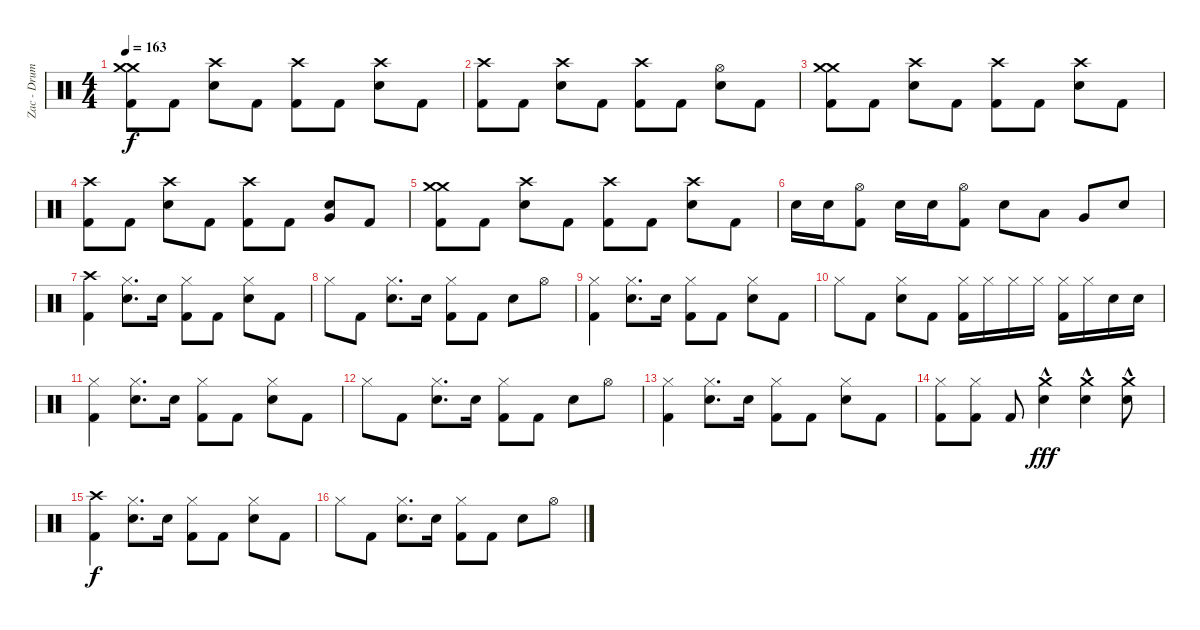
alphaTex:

\track ("Zac - Drums" "Zac - Drum") {instrument percussion}
\staff {score}
\articulation defaults
\ts (4 4)
\tempo 163
\clef neutral
\ks c
("Crash medium (hit)" "Crash medium (hit)" "Kick (hit) 2").8{dy f} "Kick (hit) 2".8 ("Crash high (hit)" "Snare (hit) 2").8 "Kick (hit) 2".8 ("Crash high (hit)" "Kick (hit) 2").8 "Kick (hit) 2".8 ("Crash high (hit)" "Snare (hit) 2").8 "Kick (hit) 2".8 |
("Crash high (hit)" "Kick (hit) 2").8 "Kick (hit) 2".8 ("Crash high (hit)" "Snare (hit) 2").8 "Kick (hit) 2".8 ("Crash high (hit)" "Kick (hit) 2").8 "Kick (hit) 2".8 ("Hi-Hat (open)" "Snare (hit) 2").8 "Kick (hit) 2".8 |
("Crash medium (hit)" "Crash medium (hit)" "Kick (hit) 2").8 "Kick (hit) 2".8 ("Crash high (hit)" "Snare (hit) 2").8 "Kick (hit) 2".8 ("Crash high (hit)" "Kick (hit) 2").8 "Kick (hit) 2".8 ("Crash high (hit)" "Snare (hit) 2").8 "Kick (hit) 2".8 |
("Crash high (hit)" "Kick (hit) 2").8 "Kick (hit) 2".8 ("Crash high (hit)" "Snare (hit) 2").8 "Kick (hit) 2".8 ("Crash high (hit)" "Kick (hit) 2").8 "Kick (hit) 2".8 ("Snare (hit) 2" "Very Low Tom (hit)").8 "Kick (hit) 2".8 |
("Crash medium (hit)" "Crash medium (hit)" "Kick (hit) 2").8 "Kick (hit) 2".8 ("Crash high (hit)" "Snare (hit) 2").8 "Kick (hit) 2".8 ("Crash high (hit)" "Kick (hit) 2").8 "Kick (hit) 2".8 ("Crash high (hit)" "Snare (hit) 2").8 "Kick (hit) 2".8 |
"Snare (hit) 2".16 "Snare (hit) 2".16 ("Hi-Hat (open)" "Kick (hit) 2").8 "Snare (hit) 2".16 "Snare (hit) 2".16 ("Hi-Hat (open)" "Kick (hit) 2").8 "Snare (hit) 2".8 "Low Tom (hit)".8 "Very Low Tom (hit)".8 "Snare (hit) 2".8 |
("Crash high (hit)" "Kick (hit) 2").4 ("Hi-Hat (closed)" "Snare (hit) 2").8{d} "Snare (hit) 2".16 ("Hi-Hat (closed)" "Kick (hit) 2").8 "Kick (hit) 2".8 ("Hi-Hat (closed)" "Snare (hit) 2").8 "Kick (hit) 2".8 |
"Hi-Hat (closed)".8 "Kick (hit) 2".8 ("Hi-Hat (closed)" "Snare (hit) 2").8{d} "Snare (hit) 2".16 ("Hi-Hat (closed)" "Kick (hit) 2").8 "Kick (hit) 2".8 "Snare (hit) 2".8 "Hi-Hat (open)".8 |
("Hi-Hat (closed)" "Kick (hit) 2").4 ("Hi-Hat (closed)" "Snare (hit) 2").8{d} "Snare (hit) 2".16 ("Hi-Hat (closed)" "Kick (hit) 2").8 "Kick (hit) 2".8 ("Hi-Hat (closed)" "Snare (hit) 2").8 "Kick (hit) 2".8 |
"Hi-Hat (closed)".8 "Kick (hit) 2".8 ("Hi-Hat (closed)" "Snare (hit) 2").8 "Kick (hit) 2".8 ("Hi-Hat (closed)" "Kick (hit) 2").16 "Hi-Hat (closed)".16 "Hi-Hat (closed)".16 "Hi-Hat (closed)".16 ("Hi-Hat (closed)" "Kick (hit) 2").16 "Hi-Hat (closed)".16 "Snare (hit) 2".16 "Snare (hit) 2".16 |
("Hi-Hat (closed)" "Kick (hit) 2").4 ("Hi-Hat (closed)" "Snare (hit) 2").8{d} "Snare (hit) 2".16 ("Hi-Hat (closed)" "Kick (hit) 2").8 "Kick (hit) 2".8 ("Hi-Hat (closed)" "Snare (hit) 2").8 "Kick (hit) 2".8 |
"Hi-Hat (closed)".8 "Kick (hit) 2".8 ("Hi-Hat (closed)" "Snare (hit) 2").8{d} "Snare (hit) 2".16 ("Hi-Hat (closed)" "Kick (hit) 2").8 "Kick (hit) 2".8 "Snare (hit) 2".8 "Hi-Hat (open)".8 |
("Hi-Hat (closed)" "Kick (hit) 2").4 ("Hi-Hat (closed)" "Snare (hit) 2").8{d} "Snare (hit) 2".16 ("Hi-Hat (closed)" "Kick (hit) 2").8 "Kick (hit) 2".8 ("Hi-Hat (closed)" "Snare (hit) 2").8 "Kick (hit) 2".8 |
("Hi-Hat (closed)" "Kick (hit) 2").8 ("Hi-Hat (closed)" "Kick (hit) 2").8 "Kick (hit) 2".8 ("Crash medium (hit)"{hac} "Snare (hit) 2").4{dy fff} ("Crash medium (hit)"{hac} "Snare (hit) 2").4 ("Crash medium (hit)"{hac} "Snare (hit) 2").8 |
("Crash high (hit)" "Kick (hit) 2").4{dy f} ("Hi-Hat (closed)" "Snare (hit) 2").8{d} "Snare (hit) 2".16 ("Hi-Hat (closed)" "Kick (hit) 2").8 "Kick (hit) 2".8 ("Hi-Hat (closed)" "Snare (hit) 2").8 "Kick (hit) 2".8 |
"Hi-Hat (closed)".8 "Kick (hit) 2".8 ("Hi-Hat (closed)" "Snare (hit) 2").8{d} "Snare (hit) 2".16 ("Hi-Hat (closed)" "Kick (hit) 2").8 "Kick (hit) 2".8 "Snare (hit) 2".8 "Hi-Hat (open)".8
